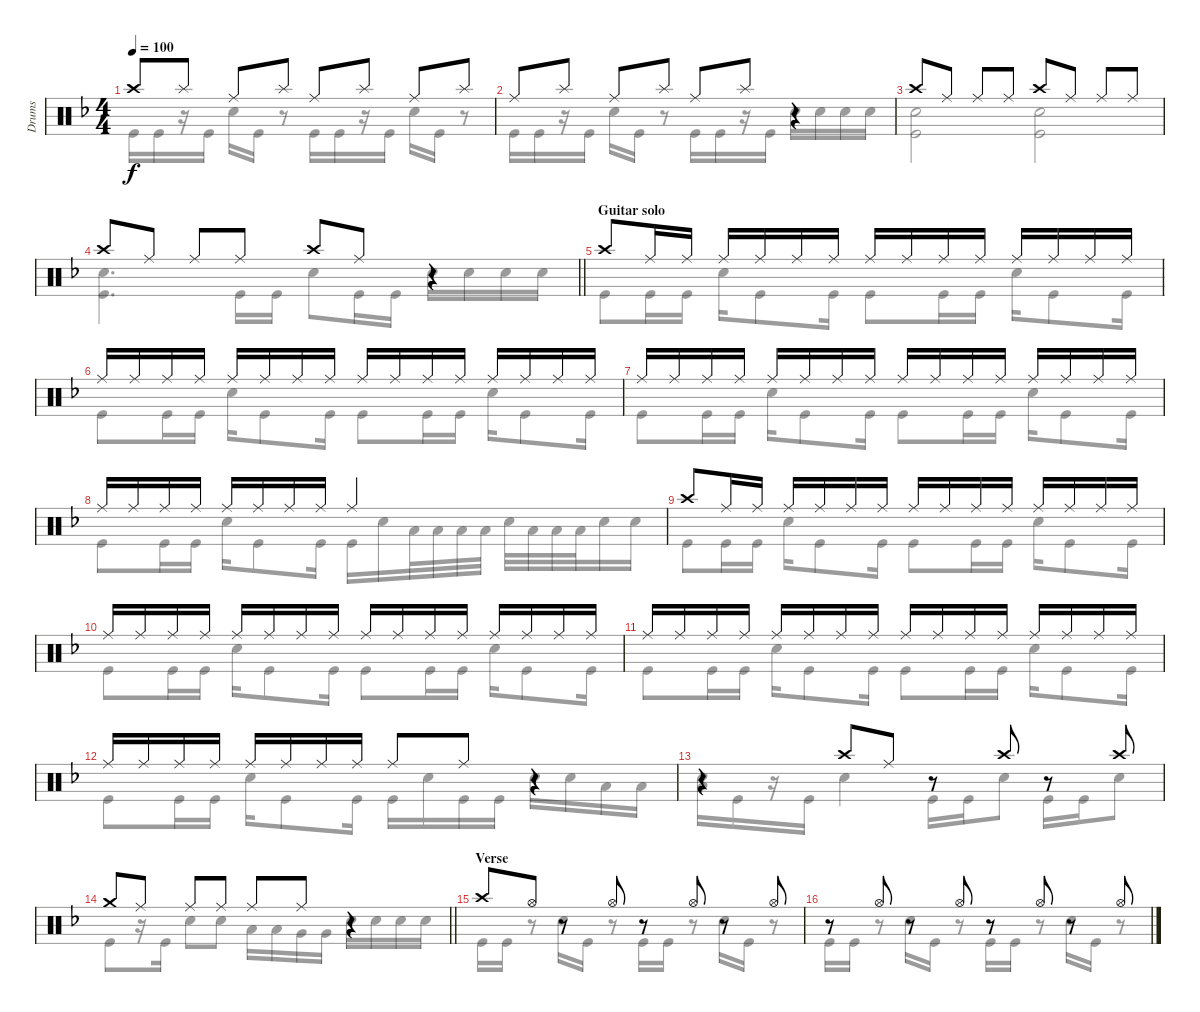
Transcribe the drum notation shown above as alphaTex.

\track ("Drums" "Drums") {instrument percussion}
\staff {score}
\articulation defaults
\voice
\ts (4 4)
\tempo 100
\clef neutral
\ks dminor "Crash high (hit)".8{dy f} "Splash (hit)".8 "Ride (middle)".8 "Splash (hit)".8 "Ride (middle)".8 "Splash (hit)".8 "Ride (middle)".8 "Splash (hit)".8
|
"Ride (middle)".8 "Splash (hit)".8 "Ride (middle)".8 "Splash (hit)".8 "Ride (middle)".8 "Splash (hit)".8 r.4 |
"Crash high (hit)".8 "Ride (middle)".8 "Ride (middle)".8 "Ride (middle)".8 "Crash high (hit)".8 "Ride (middle)".8 "Ride (middle)".8 "Ride (middle)".8 |
\barLineRight lightlight "Crash high (hit)".8 "Ride (middle)".8 "Ride (middle)".8 "Ride (middle)".8 "Crash high (hit)".8 "Ride (middle)".8
r.4 |
\section ("" "Guitar solo")
"Crash high (hit)".8 "Ride (middle)".16 "Ride (middle)".16 "Ride (middle)".16 "Ride (middle)".16 "Ride (middle)".16 "Ride (middle)".16 "Ride (middle)".16 "Ride (middle)".16 "Ride (middle)".16 "Ride (middle)".16 "Ride (middle)".16 "Ride (middle)".16 "Ride (middle)".16 "Ride (middle)".16 |
"Ride (middle)".16 "Ride (middle)".16 "Ride (middle)".16 "Ride (middle)".16 "Ride (middle)".16 "Ride (middle)".16 "Ride (middle)".16 "Ride (middle)".16 "Ride (middle)".16 "Ride (middle)".16 "Ride (middle)".16 "Ride (middle)".16 "Ride (middle)".16 "Ride (middle)".16 "Ride (middle)".16 "Ride (middle)".16 |
"Ride (middle)".16 "Ride (middle)".16 "Ride (middle)".16 "Ride (middle)".16 "Ride (middle)".16 "Ride (middle)".16 "Ride (middle)".16 "Ride (middle)".16 "Ride (middle)".16 "Ride (middle)".16 "Ride (middle)".16 "Ride (middle)".16 "Ride (middle)".16 "Ride (middle)".16 "Ride (middle)".16 "Ride (middle)".16 |
"Ride (middle)".16 "Ride (middle)".16 "Ride (middle)".16 "Ride (middle)".16 "Ride (middle)".16 "Ride (middle)".16 "Ride (middle)".16 "Ride (middle)".16 "Ride (middle)".2 |
"Crash high (hit)".8 "Ride (middle)".16 "Ride (middle)".16 "Ride (middle)".16 "Ride (middle)".16 "Ride (middle)".16 "Ride (middle)".16 "Ride (middle)".16 "Ride (middle)".16 "Ride (middle)".16 "Ride (middle)".16 "Ride (middle)".16 "Ride (middle)".16 "Ride (middle)".16 "Ride (middle)".16 |
"Ride (middle)".16 "Ride (middle)".16 "Ride (middle)".16 "Ride (middle)".16 "Ride (middle)".16 "Ride (middle)".16 "Ride (middle)".16 "Ride (middle)".16 "Ride (middle)".16 "Ride (middle)".16 "Ride (middle)".16 "Ride (middle)".16 "Ride (middle)".16 "Ride (middle)".16 "Ride (middle)".16 "Ride (middle)".16 |
"Ride (middle)".16 "Ride (middle)".16 "Ride (middle)".16 "Ride (middle)".16 "Ride (middle)".16 "Ride (middle)".16 "Ride (middle)".16 "Ride (middle)".16 "Ride (middle)".16 "Ride (middle)".16 "Ride (middle)".16 "Ride (middle)".16 "Ride (middle)".16 "Ride (middle)".16 "Ride (middle)".16 "Ride (middle)".16 |
"Ride (middle)".16 "Ride (middle)".16 "Ride (middle)".16 "Ride (middle)".16 "Ride (middle)".16 "Ride (middle)".16 "Ride (middle)".16 "Ride (middle)".16 "Ride (middle)".8 "Ride (middle)".8 r.4 |
r.4 "Crash high (hit)".8 "Ride (middle)".8 r.8 "Crash high (hit)".8 r.8 "Crash high (hit)".8 |
\barLineRight lightlight "Crash medium (hit)".8 "Ride (middle)".8 "Ride (middle)".8 "Ride (middle)".8 "Ride (middle)".8 "Ride (middle)".8
r.4 |
\section ("" "Verse")
"Crash high (hit)".8 "Hi-Hat (open)".8 r.8 "Hi-Hat (open)".8 r.8 "Hi-Hat (open)".8 r.8 "Hi-Hat (open)".8 |
r.8 "Hi-Hat (open)".8 r.8 "Hi-Hat (open)".8 r.8 "Hi-Hat (open)".8 r.8 "Hi-Hat (open)".8
\voice
\clef neutral
\ottava regular
\simile none
\ks dminor "Kick (hit)".16{dy f} "Kick (hit)".16
r.16 "Kick (hit)".16 "Snare (hit) 2".16 "Kick (hit)".16 r.8 "Kick (hit)".16 "Kick (hit)".16 r.16 "Kick (hit)".16 "Snare (hit) 2".16 "Kick (hit)".16 r.8 |
"Kick (hit)".16 "Kick (hit)".16 r.16 "Kick (hit)".16 "Snare (hit) 2".16 "Kick (hit)".16 r.8 "Kick (hit)".16 "Kick (hit)".16 r.16 "Kick (hit)".16 "Snare (hit) 2".16 "Snare (hit) 2".16 "Snare (hit) 2".16 "Snare (hit) 2".16 |
("Snare (hit) 2" "Kick (hit)").2 ("Snare (hit) 2" "Kick (hit)").2 |
\barLineRight lightlight
("Snare (hit) 2" "Kick (hit)").4{d} "Kick (hit)".16 "Kick (hit)".16 "Snare (hit) 2".8 "Kick (hit)".16 "Kick (hit)".16 "Snare (hit) 2".16 "Snare (hit) 2".16 "Snare (hit) 2".16 "Snare (hit) 2".16 |
"Kick (hit)".8 "Kick (hit)".16 "Kick (hit)".16 "Snare (hit) 2".16 "Kick (hit)".8 "Kick (hit)".16 "Kick (hit)".8 "Kick (hit)".16 "Kick (hit)".16 "Snare (hit) 2".16 "Kick (hit)".8 "Kick (hit)".16 |
"Kick (hit)".8 "Kick (hit)".16 "Kick (hit)".16 "Snare (hit) 2".16 "Kick (hit)".8 "Kick (hit)".16 "Kick (hit)".8 "Kick (hit)".16 "Kick (hit)".16 "Snare (hit) 2".16 "Kick (hit)".8 "Kick (hit)".16 |
"Kick (hit)".8 "Kick (hit)".16 "Kick (hit)".16 "Snare (hit) 2".16 "Kick (hit)".8 "Kick (hit)".16 "Kick (hit)".8 "Kick (hit)".16 "Kick (hit)".16 "Snare (hit) 2".16 "Kick (hit)".8 "Kick (hit)".16 |
"Kick (hit)".8 "Kick (hit)".16 "Kick (hit)".16 "Snare (hit) 2".16 "Kick (hit)".8 "Kick (hit)".16 "Kick (hit)".16 "Snare (hit) 2".16 "Low Floor Tom (hit)".32 "Low Floor Tom (hit)".32 "Low Floor Tom (hit)".32 "Low Floor Tom (hit)".32 "Snare (hit) 2".32 "Low Floor Tom (hit)".32 "Low Floor Tom (hit)".32 "Low Floor Tom (hit)".32 "Snare (hit) 2".16 "Snare (hit) 2".16 |
"Kick (hit)".8 "Kick (hit)".16 "Kick (hit)".16 "Snare (hit) 2".16 "Kick (hit)".8 "Kick (hit)".16 "Kick (hit)".8 "Kick (hit)".16 "Kick (hit)".16 "Snare (hit) 2".16 "Kick (hit)".8 "Kick (hit)".16 |
"Kick (hit)".8 "Kick (hit)".16 "Kick (hit)".16 "Snare (hit) 2".16 "Kick (hit)".8 "Kick (hit)".16 "Kick (hit)".8 "Kick (hit)".16 "Kick (hit)".16 "Snare (hit) 2".16 "Kick (hit)".8 "Kick (hit)".16 |
"Kick (hit)".8 "Kick (hit)".16 "Kick (hit)".16 "Snare (hit) 2".16 "Kick (hit)".8 "Kick (hit)".16 "Kick (hit)".8 "Kick (hit)".16 "Kick (hit)".16 "Snare (hit) 2".16 "Kick (hit)".8 "Kick (hit)".16 |
"Kick (hit)".8 "Kick (hit)".16 "Kick (hit)".16 "Snare (hit) 2".16 "Kick (hit)".8 "Kick (hit)".16 "Kick (hit)".16 "Snare (hit) 2".16 "Kick (hit)".16 "Kick (hit)".16 "Snare (hit) 2".16 "Snare (hit) 2".16 "Low Floor Tom (hit)".16 "Low Floor Tom (hit)".16 |
("Snare (hit) 2" "Low Floor Tom (hit)").16 "Kick (hit)".16 r.16 "Kick (hit)".16 "Snare (hit) 2".4 "Kick (hit)".16 "Kick (hit)".16 "Snare (hit) 2".8 "Kick (hit)".16 "Kick (hit)".16 "Snare (hit) 2".8 |
\barLineRight lightlight "Kick (hit)".8
r.16 "Kick (hit)".16 "Snare (hit) 2".8 "Snare (hit) 2".8 "Low Tom (hit)".16 "Low Tom (hit)".16 "Very Low Tom (hit)".16 "Very Low Tom (hit)".16 "Snare (hit) 2".16 "Snare (hit) 2".16 "Snare (hit) 2".16 "Snare (hit) 2".16 |
"Kick (hit)".16 "Kick (hit)".16 r.8 "Snare (hit) 2".16 "Kick (hit)".16 r.8 "Kick (hit)".16 "Kick (hit)".16 r.8 "Snare (hit) 2".16 "Kick (hit)".16 r.8 |
"Kick (hit)".16 "Kick (hit)".16 r.8 "Snare (hit) 2".16 "Kick (hit)".16 r.8 "Kick (hit)".16 "Kick (hit)".16 r.8 "Snare (hit) 2".16 "Kick (hit)".16 r.8
